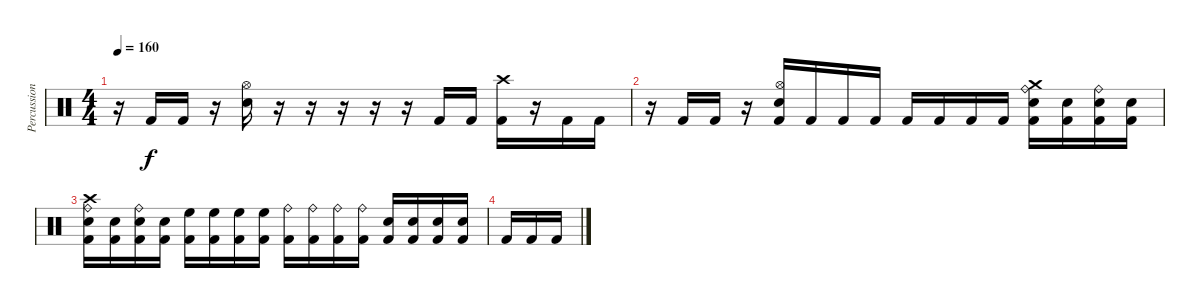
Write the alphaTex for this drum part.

\track ("Percussion" "Percussion") {instrument percussion}
\staff {score}
\articulation defaults
\ts (4 4)
\tempo 160
\clef neutral
\ks c
r.16{dy f} "Kick (hit) 2".16 "Kick (hit) 2".16 r.16 ("Hi-Hat (open)" "Snare (hit) 2").16 r.16 r.16 r.16 r.16 r.16 "Kick (hit) 2".16 "Kick (hit) 2".16 ("Crash high (hit)" "Kick (hit) 2").16 r.16 "Kick (hit) 2".16 "Kick (hit) 2".16 |
r.16 "Kick (hit) 2".16 "Kick (hit) 2".16 r.16 ("Hi-Hat (open)" "Snare (hit) 2" "Kick (hit) 2").16 "Kick (hit) 2".16 "Kick (hit) 2".16 "Kick (hit) 2".16 "Kick (hit) 2".16 "Kick (hit) 2".16 "Kick (hit) 2".16 "Kick (hit) 2".16 ("Ride (bell)" "Crash medium (hit)" "Snare (hit) 2" "Kick (hit) 2").16 ("Snare (hit) 2" "Kick (hit) 2").16 ("Ride (bell)" "Snare (hit) 2" "Kick (hit) 2").16 ("Snare (hit) 2" "Kick (hit) 2").16 |
("Ride (bell)" "Crash high (hit)" "Snare (hit) 2" "Kick (hit) 2").16 ("Snare (hit) 2" "Kick (hit) 2").16 ("Ride (bell)" "Snare (hit) 2" "Kick (hit) 2").16 ("Snare (hit) 2" "Kick (hit) 2").16 ("High Floor Tom (hit)" "Kick (hit) 2").16 ("High Floor Tom (hit)" "Kick (hit) 2").16 ("High Floor Tom (hit)" "Kick (hit) 2").16 ("High Floor Tom (hit)" "Kick (hit) 2").16 ("Ride (bell)" "Kick (hit) 2").16 ("Ride (bell)" "Kick (hit) 2").16 ("Ride (bell)" "Kick (hit) 2").16 ("Ride (bell)" "Kick (hit) 2").16 ("Snare (hit) 2" "Kick (hit) 2").16 ("Snare (hit) 2" "Kick (hit) 2").16 ("Snare (hit) 2" "Kick (hit) 2").16 ("Snare (hit) 2" "Kick (hit) 2").16 |
"Kick (hit) 2".16 "Kick (hit) 2".16 "Kick (hit) 2".16
